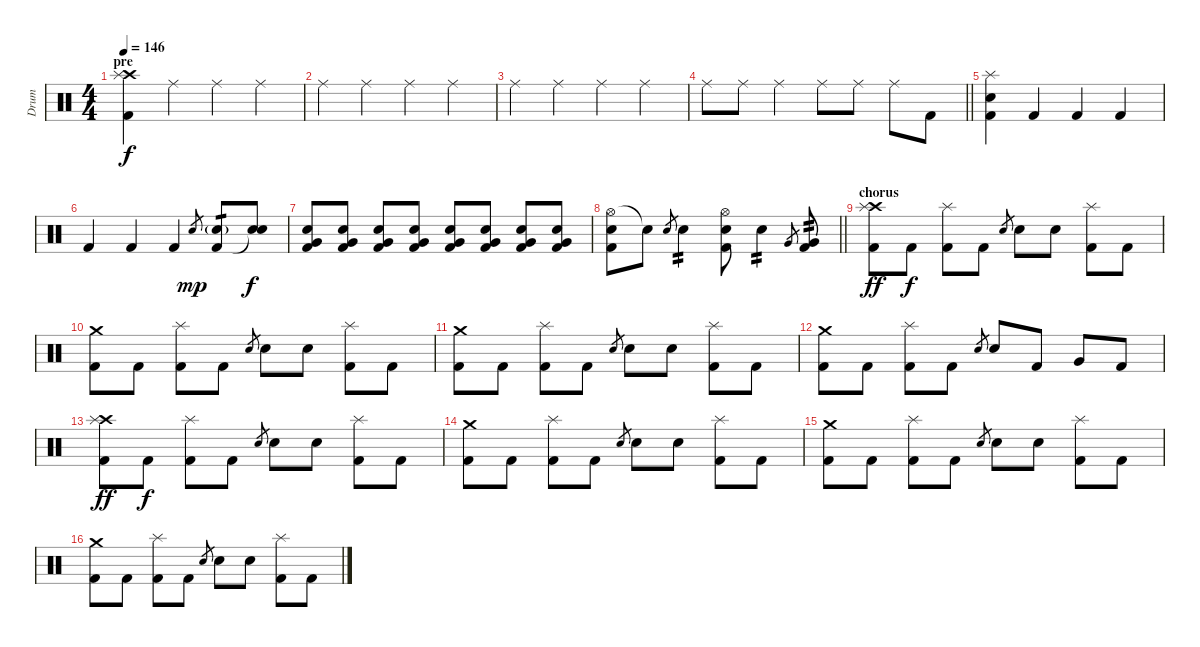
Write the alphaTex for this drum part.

\track ("Drum" "Drum") {instrument percussion}
\staff {score}
\articulation defaults
\ts (4 4)
\section ("" "pre")
\tempo 146
\clef neutral
\ks c
("Crash high (hit)" "Splash (hit)" "Kick (hit) 2").4{dy f} "Ride (middle)".4 "Ride (middle)".4 "Ride (middle)".4 |
"Ride (middle)".4 "Ride (middle)".4 "Ride (middle)".4 "Ride (middle)".4 |
"Ride (middle)".4 "Ride (middle)".4 "Ride (middle)".4 "Ride (middle)".4 |
\barLineRight lightlight "Ride (middle)".8 "Ride (middle)".8 "Ride (middle)".4 "Ride (middle)".8 "Ride (middle)".8 "Ride (middle)".8 "Kick (hit) 2".8
|
("Splash (hit)" "Electric Snare (hit)" "Kick (hit) 2").4 "Kick (hit) 2".4 "Kick (hit) 2".4 "Kick (hit) 2".4 |
"Kick (hit) 2".4 "Kick (hit) 2".4 "Kick (hit) 2".4 "Electric Snare (hit)".8{gr dy mp} ("Electric Snare (hit)"{g} "Kick (hit) 2").8{tp 1} ("Electric Snare (hit)" "Snare (hit)"{t}).8{dy f} |
("Electric Snare (hit)" "Very Low Tom (hit)" "Kick (hit) 2").8 ("Electric Snare (hit)" "Very Low Tom (hit)" "Kick (hit) 2").8 ("Electric Snare (hit)" "Very Low Tom (hit)" "Kick (hit) 2").8 ("Electric Snare (hit)" "Very Low Tom (hit)" "Kick (hit) 2").8 ("Electric Snare (hit)" "Very Low Tom (hit)" "Kick (hit) 2").8 ("Electric Snare (hit)" "Very Low Tom (hit)" "Kick (hit) 2").8 ("Electric Snare (hit)" "Very Low Tom (hit)" "Kick (hit) 2").8 ("Electric Snare (hit)" "Very Low Tom (hit)" "Kick (hit) 2").8 |
\barLineRight lightlight
("Hi-Hat (open)" "Electric Snare (hit)" "Kick (hit) 2").8 "Snare (hit)"{t}.8 "Electric Snare (hit)".8{gr} "Electric Snare (hit)".4{tp 2} ("Hi-Hat (open)" "Electric Snare (hit)" "Kick (hit) 2").8 "Electric Snare (hit)".4{tp 2} "Very Low Tom (hit)".8{gr} ("Very Low Tom (hit)" "Kick (hit) 2").8{tp 2} |
\section ("" "chorus")
("Crash high (hit)" "Splash (hit)" "Kick (hit) 2").8{dy ff} "Kick (hit) 2".8{dy f} ("Splash (hit)" "Kick (hit) 2").8 "Kick (hit) 2".8 "Electric Snare (hit)".8{gr} "Electric Snare (hit)".8 "Electric Snare (hit)".8 ("Splash (hit)" "Kick (hit) 2").8 "Kick (hit) 2".8 |
("Crash medium (hit)" "Kick (hit) 2").8 "Kick (hit) 2".8 ("Splash (hit)" "Kick (hit) 2").8 "Kick (hit) 2".8 "Electric Snare (hit)".8{gr} "Electric Snare (hit)".8 "Electric Snare (hit)".8 ("Splash (hit)" "Kick (hit) 2").8 "Kick (hit) 2".8 |
("Crash medium (hit)" "Kick (hit) 2").8 "Kick (hit) 2".8 ("Splash (hit)" "Kick (hit) 2").8 "Kick (hit) 2".8 "Electric Snare (hit)".8{gr} "Electric Snare (hit)".8 "Electric Snare (hit)".8 ("Splash (hit)" "Kick (hit) 2").8 "Kick (hit) 2".8 |
("Crash medium (hit)" "Kick (hit) 2").8 "Kick (hit) 2".8 ("Splash (hit)" "Kick (hit) 2").8 "Kick (hit) 2".8 "Electric Snare (hit)".8{gr} "Electric Snare (hit)".8 "Kick (hit) 2".8 "Very Low Tom (hit)".8 "Kick (hit) 2".8 |
("Crash high (hit)" "Splash (hit)" "Kick (hit) 2").8{dy ff} "Kick (hit) 2".8{dy f} ("Splash (hit)" "Kick (hit) 2").8 "Kick (hit) 2".8 "Electric Snare (hit)".8{gr} "Electric Snare (hit)".8 "Electric Snare (hit)".8 ("Splash (hit)" "Kick (hit) 2").8 "Kick (hit) 2".8 |
("Crash medium (hit)" "Kick (hit) 2").8 "Kick (hit) 2".8 ("Splash (hit)" "Kick (hit) 2").8 "Kick (hit) 2".8 "Electric Snare (hit)".8{gr} "Electric Snare (hit)".8 "Electric Snare (hit)".8 ("Splash (hit)" "Kick (hit) 2").8 "Kick (hit) 2".8 |
("Crash medium (hit)" "Kick (hit) 2").8 "Kick (hit) 2".8 ("Splash (hit)" "Kick (hit) 2").8 "Kick (hit) 2".8 "Electric Snare (hit)".8{gr} "Electric Snare (hit)".8 "Electric Snare (hit)".8 ("Splash (hit)" "Kick (hit) 2").8 "Kick (hit) 2".8 |
("Crash medium (hit)" "Kick (hit) 2").8 "Kick (hit) 2".8 ("Splash (hit)" "Kick (hit) 2").8 "Kick (hit) 2".8 "Electric Snare (hit)".8{gr} "Electric Snare (hit)".8 "Electric Snare (hit)".8 ("Splash (hit)" "Kick (hit) 2").8 "Kick (hit) 2".8
